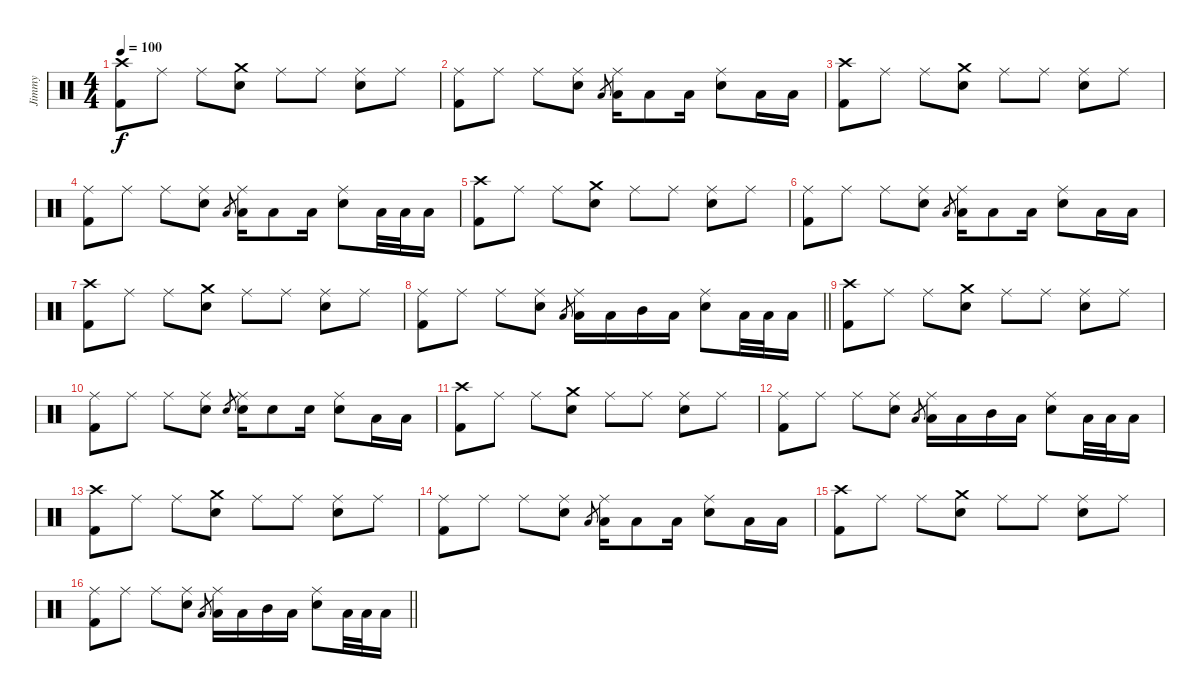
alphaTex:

\track ("Jimmy" "Jimmy") {instrument percussion}
\staff {score}
\articulation defaults
\ts (4 4)
\tempo 100
\clef neutral
\ks c
("Crash high (hit)" "Kick (hit) 2").8{dy f} "Ride (middle)".8 "Ride (middle)".8 ("Crash medium (hit)" "Snare (hit) 2").8 "Ride (middle)".8 "Ride (middle)".8 ("Ride (middle)" "Snare (hit) 2").8 "Ride (middle)".8 |
("Ride (middle)" "Kick (hit) 2").8 "Ride (middle)".8 "Ride (middle)".8 ("Ride (middle)" "Snare (hit) 2").8 "Low Tom (hit)".8{gr} ("Ride (middle)" "Low Tom (hit)").16 "Low Tom (hit)".8 "Low Tom (hit)".16 ("Ride (middle)" "Snare (hit) 2").8 "Low Floor Tom (hit)".16 "Low Floor Tom (hit)".16 |
("Crash high (hit)" "Kick (hit) 2").8 "Ride (middle)".8 "Ride (middle)".8 ("Crash medium (hit)" "Snare (hit) 2").8 "Ride (middle)".8 "Ride (middle)".8 ("Ride (middle)" "Snare (hit) 2").8 "Ride (middle)".8 |
("Ride (middle)" "Kick (hit) 2").8 "Ride (middle)".8 "Ride (middle)".8 ("Ride (middle)" "Snare (hit) 2").8 "Low Tom (hit)".8{gr} ("Ride (middle)" "Low Tom (hit)").16 "Low Tom (hit)".8 "Low Tom (hit)".16 ("Ride (middle)" "Snare (hit) 2").8 "Low Floor Tom (hit)".32 "Low Floor Tom (hit)".32 "Low Floor Tom (hit)".16 |
("Crash high (hit)" "Kick (hit) 2").8 "Ride (middle)".8 "Ride (middle)".8 ("Crash medium (hit)" "Snare (hit) 2").8 "Ride (middle)".8 "Ride (middle)".8 ("Ride (middle)" "Snare (hit) 2").8 "Ride (middle)".8 |
("Ride (middle)" "Kick (hit) 2").8 "Ride (middle)".8 "Ride (middle)".8 ("Ride (middle)" "Snare (hit) 2").8 "Low Tom (hit)".8{gr} ("Ride (middle)" "Low Tom (hit)").16 "Low Tom (hit)".8 "Low Tom (hit)".16 ("Ride (middle)" "Snare (hit) 2").8 "Low Floor Tom (hit)".16 "Low Floor Tom (hit)".16 |
("Crash high (hit)" "Kick (hit) 2").8 "Ride (middle)".8 "Ride (middle)".8 ("Crash medium (hit)" "Snare (hit) 2").8 "Ride (middle)".8 "Ride (middle)".8 ("Ride (middle)" "Snare (hit) 2").8 "Ride (middle)".8 |
\barLineRight lightlight
("Ride (middle)" "Kick (hit) 2").8 "Ride (middle)".8 "Ride (middle)".8 ("Ride (middle)" "Snare (hit) 2").8 "Low Tom (hit)".8{gr} ("Ride (middle)" "Low Tom (hit)").16 "Low Tom (hit)".16 "Mid Tom (hit)".16 "Low Tom (hit)".16 ("Ride (middle)" "Snare (hit) 2").8 "Low Floor Tom (hit)".32 "Low Floor Tom (hit)".32 "Low Floor Tom (hit)".16 |
("Crash high (hit)" "Kick (hit) 2").8 "Ride (middle)".8 "Ride (middle)".8 ("Crash medium (hit)" "Snare (hit) 2").8 "Ride (middle)".8 "Ride (middle)".8 ("Ride (middle)" "Snare (hit) 2").8 "Ride (middle)".8 |
("Ride (middle)" "Kick (hit) 2").8 "Ride (middle)".8 "Ride (middle)".8 ("Ride (middle)" "Snare (hit) 2").8 "Snare (hit) 2".8{gr} ("Ride (middle)" "Snare (hit) 2").16 "Snare (hit) 2".8 "Snare (hit) 2".16 ("Ride (middle)" "Snare (hit) 2").8 "Low Floor Tom (hit)".16 "Low Floor Tom (hit)".16 |
("Crash high (hit)" "Kick (hit) 2").8 "Ride (middle)".8 "Ride (middle)".8 ("Crash medium (hit)" "Snare (hit) 2").8 "Ride (middle)".8 "Ride (middle)".8 ("Ride (middle)" "Snare (hit) 2").8 "Ride (middle)".8 |
("Ride (middle)" "Kick (hit) 2").8 "Ride (middle)".8 "Ride (middle)".8 ("Ride (middle)" "Snare (hit) 2").8 "Low Tom (hit)".8{gr} ("Ride (middle)" "Low Tom (hit)").16 "Low Tom (hit)".16 "Mid Tom (hit)".16 "Low Tom (hit)".16 ("Ride (middle)" "Snare (hit) 2").8 "Low Floor Tom (hit)".32 "Low Floor Tom (hit)".32 "Low Floor Tom (hit)".16 |
("Crash high (hit)" "Kick (hit) 2").8 "Ride (middle)".8 "Ride (middle)".8 ("Crash medium (hit)" "Snare (hit) 2").8 "Ride (middle)".8 "Ride (middle)".8 ("Ride (middle)" "Snare (hit) 2").8 "Ride (middle)".8 |
("Ride (middle)" "Kick (hit) 2").8 "Ride (middle)".8 "Ride (middle)".8 ("Ride (middle)" "Snare (hit) 2").8 "Low Tom (hit)".8{gr} ("Ride (middle)" "Low Tom (hit)").16 "Low Tom (hit)".8 "Low Tom (hit)".16 ("Ride (middle)" "Snare (hit) 2").8 "Low Floor Tom (hit)".16 "Low Floor Tom (hit)".16 |
("Crash high (hit)" "Kick (hit) 2").8 "Ride (middle)".8 "Ride (middle)".8 ("Crash medium (hit)" "Snare (hit) 2").8 "Ride (middle)".8 "Ride (middle)".8 ("Ride (middle)" "Snare (hit) 2").8 "Ride (middle)".8 |
\barLineRight lightlight
("Ride (middle)" "Kick (hit) 2").8 "Ride (middle)".8 "Ride (middle)".8 ("Ride (middle)" "Snare (hit) 2").8 "Low Tom (hit)".8{gr} ("Ride (middle)" "Low Tom (hit)").16 "Low Tom (hit)".16 "Mid Tom (hit)".16 "Low Tom (hit)".16 ("Ride (middle)" "Snare (hit) 2").8 "Low Floor Tom (hit)".32 "Low Floor Tom (hit)".32 "Low Floor Tom (hit)".16
